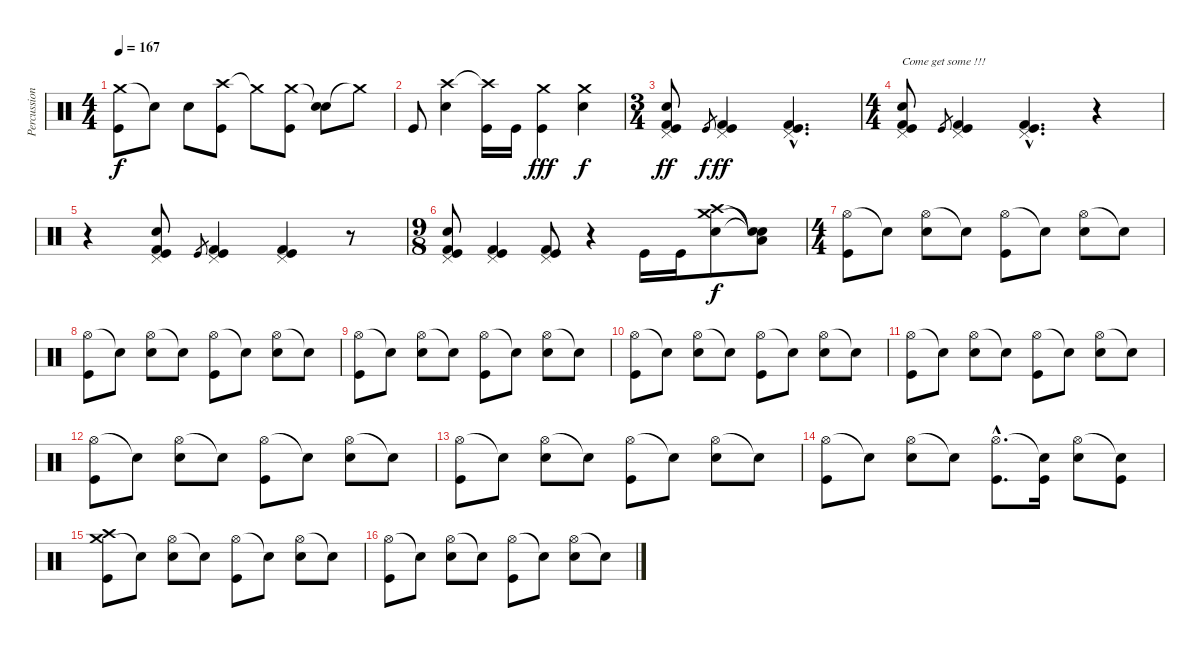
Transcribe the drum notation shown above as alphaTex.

\track ("Percussions" "Percussion") {instrument percussion}
\staff {score}
\articulation defaults
\ts (4 4)
\tempo 167
\clef neutral
\ks c
("Crash medium (hit)" "Kick (hit)").8{dy f} "Snare (hit)"{t}.8 "Electric Snare (hit)".8 ("Crash high (hit)" "Kick (hit)").8 "Crash medium (hit)"{t}.8 ("Crash medium (hit)" "Kick (hit)").8 ("Snare (hit)"{t} "Electric Snare (hit)").8 "Crash medium (hit)"{t}.8 |
"Kick (hit)".8 ("Crash high (hit)" "Electric Snare (hit)").4 ("Crash high (hit)"{t} "Kick (hit)").16 "Kick (hit)".16 ("Crash medium (hit)" "Kick (hit)").4{dy fff} ("Crash medium (hit)" "Electric Snare (hit)").4{dy f} |
\ts (3 4)
("Pedal Hi-Hat (hit)" "Electric Snare (hit)" "Kick (hit) 2" "Kick (hit)").8{dy ff} "Kick (hit)".8{gr dy f} ("Pedal Hi-Hat (hit)" "Kick (hit) 2" "Kick (hit)").4{dy ff} ("Pedal Hi-Hat (hit)"{hac} "Kick (hit) 2"{hac} "Kick (hit)"{hac}).4{d} |
\ts (4 4)
("Pedal Hi-Hat (hit)" "Electric Snare (hit)" "Kick (hit) 2" "Kick (hit)").8{txt "Come get some !!!"} "Kick (hit)".8{gr} ("Pedal Hi-Hat (hit)" "Kick (hit) 2" "Kick (hit)").4 ("Pedal Hi-Hat (hit)"{hac} "Kick (hit) 2"{hac} "Kick (hit)"{hac}).4{d} r.4 |
r.4 ("Pedal Hi-Hat (hit)" "Electric Snare (hit)" "Kick (hit) 2" "Kick (hit)").8 "Kick (hit)".8{gr} ("Pedal Hi-Hat (hit)" "Kick (hit) 2" "Kick (hit)").4 ("Pedal Hi-Hat (hit)" "Kick (hit) 2" "Kick (hit)").4 r.8 |
\ts (9 8)
("Pedal Hi-Hat (hit)" "Electric Snare (hit)" "Kick (hit) 2" "Kick (hit)").8{volume 15} ("Pedal Hi-Hat (hit)" "Kick (hit) 2" "Kick (hit)").4 ("Pedal Hi-Hat (hit)" "Kick (hit) 2" "Kick (hit)").8 r.4 "Kick (hit)".16 "Kick (hit)".16 ("Crash medium (hit)" "Crash high (hit)" "Electric Snare (hit)").8{dy f} ("Snare (hit)"{t} "Low Tom (hit)"{t} "Snare (hit)"{t}).8 |
\ts (4 4)
("Hi-Hat (open)" "Kick (hit)").8{volume 15} "Snare (hit)"{t}.8 ("Hi-Hat (open)" "Electric Snare (hit)").8 "Snare (hit)"{t}.8 ("Hi-Hat (open)" "Kick (hit)").8 "Snare (hit)"{t}.8 ("Hi-Hat (open)" "Electric Snare (hit)").8 "Snare (hit)"{t}.8 |
("Hi-Hat (open)" "Kick (hit)").8 "Snare (hit)"{t}.8 ("Hi-Hat (open)" "Electric Snare (hit)").8 "Snare (hit)"{t}.8 ("Hi-Hat (open)" "Kick (hit)").8 "Snare (hit)"{t}.8 ("Hi-Hat (open)" "Electric Snare (hit)").8 "Snare (hit)"{t}.8 |
("Hi-Hat (open)" "Kick (hit)").8 "Snare (hit)"{t}.8 ("Hi-Hat (open)" "Electric Snare (hit)").8 "Snare (hit)"{t}.8 ("Hi-Hat (open)" "Kick (hit)").8 "Snare (hit)"{t}.8 ("Hi-Hat (open)" "Electric Snare (hit)").8 "Snare (hit)"{t}.8 |
("Hi-Hat (open)" "Kick (hit)").8 "Snare (hit)"{t}.8 ("Hi-Hat (open)" "Electric Snare (hit)").8 "Snare (hit)"{t}.8 ("Hi-Hat (open)" "Kick (hit)").8 "Snare (hit)"{t}.8 ("Hi-Hat (open)" "Electric Snare (hit)").8 "Snare (hit)"{t}.8 |
("Hi-Hat (open)" "Kick (hit)").8 "Snare (hit)"{t}.8 ("Hi-Hat (open)" "Electric Snare (hit)").8 "Snare (hit)"{t}.8 ("Hi-Hat (open)" "Kick (hit)").8 "Snare (hit)"{t}.8 ("Hi-Hat (open)" "Electric Snare (hit)").8 "Snare (hit)"{t}.8 |
("Hi-Hat (open)" "Kick (hit)").8 "Snare (hit)"{t}.8 ("Hi-Hat (open)" "Electric Snare (hit)").8 "Snare (hit)"{t}.8 ("Hi-Hat (open)" "Kick (hit)").8 "Snare (hit)"{t}.8 ("Hi-Hat (open)" "Electric Snare (hit)").8 "Snare (hit)"{t}.8 |
("Hi-Hat (open)" "Kick (hit)").8 "Snare (hit)"{t}.8 ("Hi-Hat (open)" "Electric Snare (hit)").8 "Snare (hit)"{t}.8 ("Hi-Hat (open)" "Kick (hit)").8 "Snare (hit)"{t}.8 ("Hi-Hat (open)" "Electric Snare (hit)").8 "Snare (hit)"{t}.8 |
("Hi-Hat (open)" "Kick (hit)").8 "Snare (hit)"{t}.8 ("Hi-Hat (open)" "Electric Snare (hit)").8 "Snare (hit)"{t}.8 ("Hi-Hat (open)"{hac} "Kick (hit)"{hac}).8{d} ("Snare (hit)"{t} "Kick (hit)").16 ("Hi-Hat (open)" "Electric Snare (hit)").8 ("Snare (hit)"{t} "Kick (hit)").8 |
("Crash medium (hit)" "Crash high (hit)" "Kick (hit)").8 "Snare (hit)"{t}.8 ("Hi-Hat (open)" "Electric Snare (hit)").8 "Snare (hit)"{t}.8 ("Hi-Hat (open)" "Kick (hit)").8 "Snare (hit)"{t}.8 ("Hi-Hat (open)" "Electric Snare (hit)").8 "Snare (hit)"{t}.8 |
("Hi-Hat (open)" "Kick (hit)").8 "Snare (hit)"{t}.8 ("Hi-Hat (open)" "Electric Snare (hit)").8 "Snare (hit)"{t}.8 ("Hi-Hat (open)" "Kick (hit)").8 "Snare (hit)"{t}.8 ("Hi-Hat (open)" "Electric Snare (hit)").8 "Snare (hit)"{t}.8
